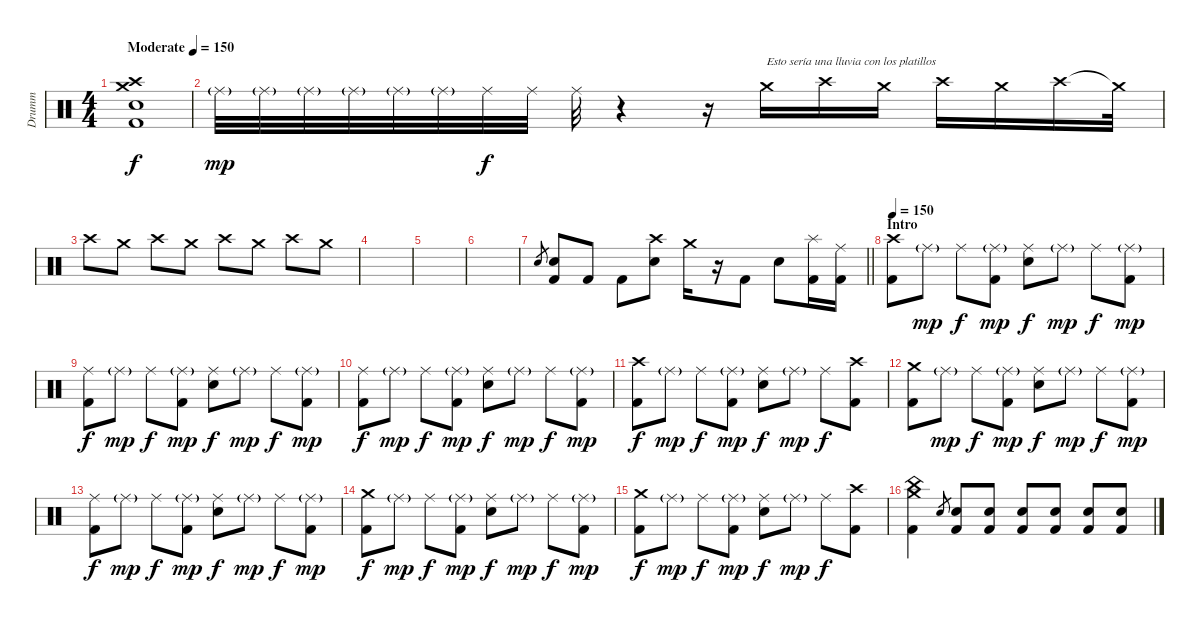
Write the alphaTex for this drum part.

\track ("Drumm" "Drumm") {instrument percussion}
\staff {score}
\articulation defaults
\ts (4 4)
\tempo (150 "Moderate")
\clef neutral
\ks c
("Crash medium (hit)" "Crash high (hit)" "Snare (hit) 2" "Kick (hit) 2").1{dy f} |
"Ride (middle)"{g}.32{dy mp} "Ride (middle)"{g}.32 "Ride (middle)"{g}.32 "Ride (middle)"{g}.32 "Ride (middle)"{g}.32 "Ride (middle)"{g}.32 "Ride (middle)".32{dy f} "Ride (middle)".32 "Ride (middle)".32 r.4 r.16 "Crash medium (hit)".16{txt "Esto sería una lluvia con los platillos" volume 5} "Crash high (hit)".16{volume 5} "Crash medium (hit)".16{volume 6} "Crash high (hit)".16{volume 7} "Crash medium (hit)".16{volume 7} "Crash high (hit)".16{volume 8} "Crash medium (hit)"{t}.32 |
"Crash high (hit)".8{volume 8} "Crash medium (hit)".8{volume 9} "Crash high (hit)".8{volume 10} "Crash medium (hit)".8{volume 11} "Crash high (hit)".8{volume 13} "Crash medium (hit)".8 "Crash high (hit)".8 "Crash medium (hit)".8 |
|
|
|
\barLineRight lightlight "Snare (hit) 2".8{gr}
("Snare (hit) 2" "Kick (hit) 2").8 "Kick (hit) 2".8 "Kick (hit) 2".8 ("Crash high (hit)" "Snare (hit) 2").8 "Crash medium (hit)".16 r.16 "Kick (hit) 2".8 "Snare (hit) 2".8 ("Splash (hit)" "Kick (hit) 2").16 ("Ride (middle)" "Kick (hit) 2").16 |
\section ("" "Intro")
\tempo 150
("Crash high (hit)" "Kick (hit) 2").8 "Ride (middle)"{g}.8{dy mp} "Ride (middle)".8{dy f} ("Ride (middle)"{g} "Kick (hit) 2").8{dy mp} ("Ride (middle)" "Snare (hit) 2").8{dy f} "Ride (middle)"{g}.8{dy mp} "Ride (middle)".8{dy f} ("Ride (middle)"{g} "Kick (hit) 2").8{dy mp} |
("Ride (middle)" "Kick (hit) 2").8{dy f} "Ride (middle)"{g}.8{dy mp} "Ride (middle)".8{dy f} ("Ride (middle)"{g} "Kick (hit) 2").8{dy mp} ("Ride (middle)" "Snare (hit) 2").8{dy f} "Ride (middle)"{g}.8{dy mp} "Ride (middle)".8{dy f} ("Ride (middle)"{g} "Kick (hit) 2").8{dy mp} |
("Ride (middle)" "Kick (hit) 2").8{dy f} "Ride (middle)"{g}.8{dy mp} "Ride (middle)".8{dy f} ("Ride (middle)"{g} "Kick (hit) 2").8{dy mp} ("Ride (middle)" "Snare (hit) 2").8{dy f} "Ride (middle)"{g}.8{dy mp} "Ride (middle)".8{dy f} ("Ride (middle)"{g} "Kick (hit) 2").8{dy mp} |
("Crash high (hit)" "Kick (hit) 2").8{dy f} "Ride (middle)"{g}.8{dy mp} "Ride (middle)".8{dy f} ("Ride (middle)"{g} "Kick (hit) 2").8{dy mp} ("Ride (middle)" "Snare (hit) 2").8{dy f} "Ride (middle)"{g}.8{dy mp} "Ride (middle)".8{dy f} ("Crash high (hit)" "Kick (hit) 2").8 |
("Crash medium (hit)" "Kick (hit) 2").8 "Ride (middle)"{g}.8{dy mp} "Ride (middle)".8{dy f} ("Ride (middle)"{g} "Kick (hit) 2").8{dy mp} ("Ride (middle)" "Snare (hit) 2").8{dy f} "Ride (middle)"{g}.8{dy mp} "Ride (middle)".8{dy f} ("Ride (middle)"{g} "Kick (hit) 2").8{dy mp} |
("Ride (middle)" "Kick (hit) 2").8{dy f} "Ride (middle)"{g}.8{dy mp} "Ride (middle)".8{dy f} ("Ride (middle)"{g} "Kick (hit) 2").8{dy mp} ("Ride (middle)" "Snare (hit) 2").8{dy f} "Ride (middle)"{g}.8{dy mp} "Ride (middle)".8{dy f} ("Ride (middle)"{g} "Kick (hit) 2").8{dy mp} |
("Crash medium (hit)" "Kick (hit) 2").8{dy f} "Ride (middle)"{g}.8{dy mp} "Ride (middle)".8{dy f} ("Ride (middle)"{g} "Kick (hit) 2").8{dy mp} ("Ride (middle)" "Snare (hit) 2").8{dy f} "Ride (middle)"{g}.8{dy mp} "Ride (middle)".8{dy f} ("Ride (middle)"{g} "Kick (hit) 2").8{dy mp} |
("Crash medium (hit)" "Kick (hit) 2").8{dy f} "Ride (middle)"{g}.8{dy mp} "Ride (middle)".8{dy f} ("Ride (middle)"{g} "Kick (hit) 2").8{dy mp} ("Ride (middle)" "Snare (hit) 2").8{dy f} "Ride (middle)"{g}.8{dy mp} "Ride (middle)".8{dy f} ("Crash high (hit)" "Kick (hit) 2").8 |
("Crash medium (hit)" "China (hit)" "Kick (hit) 2").4 "Snare (hit) 2".8{gr} ("Snare (hit) 2" "Kick (hit) 2").8 ("Snare (hit) 2" "Kick (hit) 2").8 ("Snare (hit) 2" "Kick (hit) 2").8 ("Snare (hit) 2" "Kick (hit) 2").8 ("Snare (hit) 2" "Kick (hit) 2").8 ("Snare (hit) 2" "Kick (hit) 2").8
